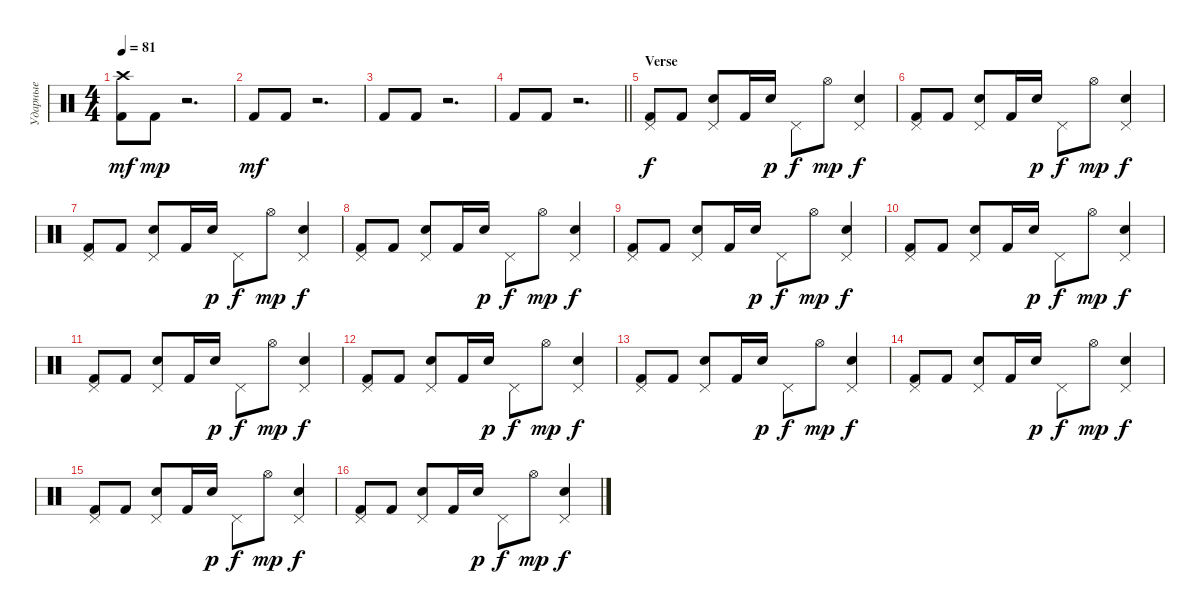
\track ("Ударные" "Ударные") {instrument percussion}
\staff {score}
\articulation defaults
\ts (4 4)
\tempo 81
\clef neutral
\ks c
("Crash high (hit)" "Kick (hit) 2").8{dy mf} "Kick (hit) 2".8{dy mp} r.2{d} |
"Kick (hit) 2".8{dy mf} "Kick (hit) 2".8 r.2{d} |
"Kick (hit) 2".8 "Kick (hit) 2".8 r.2{d} |
\barLineRight lightlight "Kick (hit) 2".8 "Kick (hit) 2".8
r.2{d} |
\section ("" "Verse")
("Pedal Hi-Hat (hit)" "Kick (hit) 2").8{dy f} "Kick (hit) 2".8 ("Pedal Hi-Hat (hit)" "Electric Snare (hit)").8 "Kick (hit) 2".16 "Electric Snare (hit)".16{dy p} "Pedal Hi-Hat (hit)".8{dy f} "Hi-Hat (open)".8{dy mp} ("Pedal Hi-Hat (hit)" "Electric Snare (hit)").4{dy f} |
("Pedal Hi-Hat (hit)" "Kick (hit) 2").8 "Kick (hit) 2".8 ("Pedal Hi-Hat (hit)" "Electric Snare (hit)").8 "Kick (hit) 2".16 "Electric Snare (hit)".16{dy p} "Pedal Hi-Hat (hit)".8{dy f} "Hi-Hat (open)".8{dy mp} ("Pedal Hi-Hat (hit)" "Electric Snare (hit)").4{dy f} |
("Pedal Hi-Hat (hit)" "Kick (hit) 2").8 "Kick (hit) 2".8 ("Pedal Hi-Hat (hit)" "Electric Snare (hit)").8 "Kick (hit) 2".16 "Electric Snare (hit)".16{dy p} "Pedal Hi-Hat (hit)".8{dy f} "Hi-Hat (open)".8{dy mp} ("Pedal Hi-Hat (hit)" "Electric Snare (hit)").4{dy f} |
("Pedal Hi-Hat (hit)" "Kick (hit) 2").8 "Kick (hit) 2".8 ("Pedal Hi-Hat (hit)" "Electric Snare (hit)").8 "Kick (hit) 2".16 "Electric Snare (hit)".16{dy p} "Pedal Hi-Hat (hit)".8{dy f} "Hi-Hat (open)".8{dy mp} ("Pedal Hi-Hat (hit)" "Electric Snare (hit)").4{dy f} |
("Pedal Hi-Hat (hit)" "Kick (hit) 2").8 "Kick (hit) 2".8 ("Pedal Hi-Hat (hit)" "Electric Snare (hit)").8 "Kick (hit) 2".16 "Electric Snare (hit)".16{dy p} "Pedal Hi-Hat (hit)".8{dy f} "Hi-Hat (open)".8{dy mp} ("Pedal Hi-Hat (hit)" "Electric Snare (hit)").4{dy f} |
("Pedal Hi-Hat (hit)" "Kick (hit) 2").8 "Kick (hit) 2".8 ("Pedal Hi-Hat (hit)" "Electric Snare (hit)").8 "Kick (hit) 2".16 "Electric Snare (hit)".16{dy p} "Pedal Hi-Hat (hit)".8{dy f} "Hi-Hat (open)".8{dy mp} ("Pedal Hi-Hat (hit)" "Electric Snare (hit)").4{dy f} |
("Pedal Hi-Hat (hit)" "Kick (hit) 2").8 "Kick (hit) 2".8 ("Pedal Hi-Hat (hit)" "Electric Snare (hit)").8 "Kick (hit) 2".16 "Electric Snare (hit)".16{dy p} "Pedal Hi-Hat (hit)".8{dy f} "Hi-Hat (open)".8{dy mp} ("Pedal Hi-Hat (hit)" "Electric Snare (hit)").4{dy f} |
("Pedal Hi-Hat (hit)" "Kick (hit) 2").8 "Kick (hit) 2".8 ("Pedal Hi-Hat (hit)" "Electric Snare (hit)").8 "Kick (hit) 2".16 "Electric Snare (hit)".16{dy p} "Pedal Hi-Hat (hit)".8{dy f} "Hi-Hat (open)".8{dy mp} ("Pedal Hi-Hat (hit)" "Electric Snare (hit)").4{dy f} |
("Pedal Hi-Hat (hit)" "Kick (hit) 2").8 "Kick (hit) 2".8 ("Pedal Hi-Hat (hit)" "Electric Snare (hit)").8 "Kick (hit) 2".16 "Electric Snare (hit)".16{dy p} "Pedal Hi-Hat (hit)".8{dy f} "Hi-Hat (open)".8{dy mp} ("Pedal Hi-Hat (hit)" "Electric Snare (hit)").4{dy f} |
("Pedal Hi-Hat (hit)" "Kick (hit) 2").8 "Kick (hit) 2".8 ("Pedal Hi-Hat (hit)" "Electric Snare (hit)").8 "Kick (hit) 2".16 "Electric Snare (hit)".16{dy p} "Pedal Hi-Hat (hit)".8{dy f} "Hi-Hat (open)".8{dy mp} ("Pedal Hi-Hat (hit)" "Electric Snare (hit)").4{dy f} |
("Pedal Hi-Hat (hit)" "Kick (hit) 2").8 "Kick (hit) 2".8 ("Pedal Hi-Hat (hit)" "Electric Snare (hit)").8 "Kick (hit) 2".16 "Electric Snare (hit)".16{dy p} "Pedal Hi-Hat (hit)".8{dy f} "Hi-Hat (open)".8{dy mp} ("Pedal Hi-Hat (hit)" "Electric Snare (hit)").4{dy f} |
("Pedal Hi-Hat (hit)" "Kick (hit) 2").8 "Kick (hit) 2".8 ("Pedal Hi-Hat (hit)" "Electric Snare (hit)").8 "Kick (hit) 2".16 "Electric Snare (hit)".16{dy p} "Pedal Hi-Hat (hit)".8{dy f} "Hi-Hat (open)".8{dy mp} ("Pedal Hi-Hat (hit)" "Electric Snare (hit)").4{dy f}
